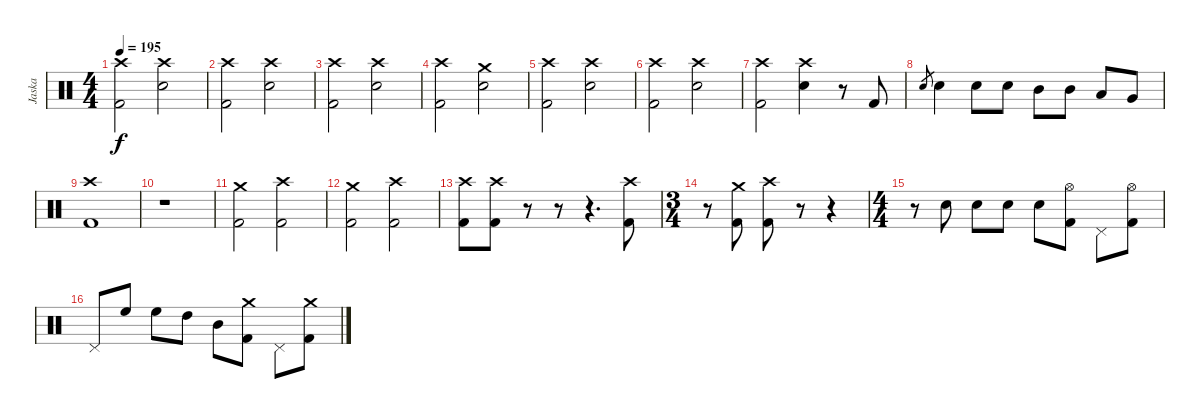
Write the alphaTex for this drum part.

\track ("Jaska" "Jaska") {instrument percussion}
\staff {score}
\articulation defaults
\ts (4 4)
\tempo 195
\clef neutral
\ks c
("Crash high (hit)" "Kick (hit) 2").2{dy f} ("Crash high (hit)" "Electric Snare (hit)").2 |
("Crash high (hit)" "Kick (hit) 2").2 ("Crash high (hit)" "Electric Snare (hit)").2 |
("Crash high (hit)" "Kick (hit) 2").2 ("Crash high (hit)" "Electric Snare (hit)").2 |
("Crash high (hit)" "Kick (hit) 2").2 ("Crash medium (hit)" "Electric Snare (hit)").2 |
("Crash high (hit)" "Kick (hit) 2").2 ("Crash high (hit)" "Electric Snare (hit)").2 |
("Crash high (hit)" "Kick (hit) 2").2 ("Crash high (hit)" "Electric Snare (hit)").2 |
("Crash high (hit)" "Kick (hit) 2").2 ("Crash high (hit)" "Electric Snare (hit)").4 r.8 "Kick (hit) 2".8 |
"Electric Snare (hit)".8{gr} "Electric Snare (hit)".4 "Electric Snare (hit)".8 "Electric Snare (hit)".8 "Mid Tom (hit)".8 "Mid Tom (hit)".8 "Low Tom (hit)".8 "Very Low Tom (hit)".8 |
("Crash high (hit)" "Kick (hit) 2").1 |
r.1 |
("Crash medium (hit)" "Kick (hit) 2").2 ("Crash high (hit)" "Kick (hit) 2").2 |
("Crash medium (hit)" "Kick (hit) 2").2 ("Crash high (hit)" "Kick (hit) 2").2 |
("Crash high (hit)" "Kick (hit) 2").8 ("Crash high (hit)" "Kick (hit) 2").8 r.8 r.8 r.4{d} ("Crash high (hit)" "Kick (hit) 2").8 |
\ts (3 4)
r.8 ("Crash medium (hit)" "Kick (hit) 2").8 ("Crash high (hit)" "Kick (hit) 2").8 r.8 r.4 |
\ts (4 4)
r.8 "Electric Snare (hit)".8 "Electric Snare (hit)".8 "Electric Snare (hit)".8 "Electric Snare (hit)".8 ("Hi-Hat (open)" "Kick (hit) 2").8 "Pedal Hi-Hat (hit)".8 ("Hi-Hat (open)" "Kick (hit) 2").8 |
"Pedal Hi-Hat (hit)".8 "High Floor Tom (hit)".8 "High Floor Tom (hit)".8 "High Tom (hit)".8 "Mid Tom (hit)".8 ("Crash medium (hit)" "Kick (hit) 2").8 "Pedal Hi-Hat (hit)".8 ("Crash medium (hit)" "Kick (hit) 2").8
